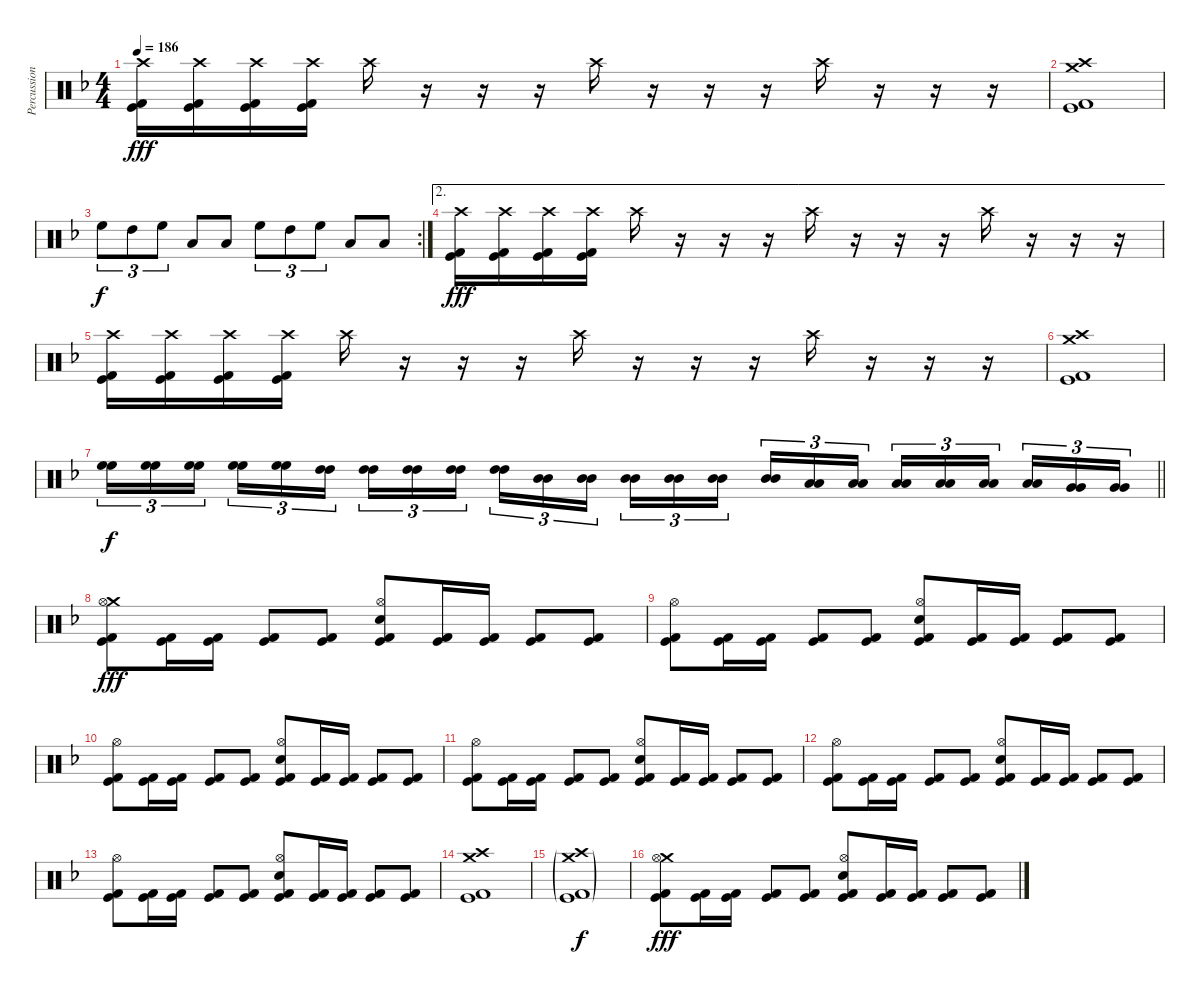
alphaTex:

\track ("Percussion" "Percussion") {instrument percussion}
\staff {score}
\articulation defaults
\ts (4 4)
\tempo 186
\clef neutral
\ks f
("Crash high (hit)" "Kick (hit)" "Kick (hit) 2").16{dy fff} ("Crash high (hit)" "Kick (hit)" "Kick (hit) 2").16 ("Crash high (hit)" "Kick (hit)" "Kick (hit) 2").16 ("Crash high (hit)" "Kick (hit)" "Kick (hit) 2").16 "Crash high (hit)".16 r.16 r.16 r.16 "Crash high (hit)".16 r.16 r.16 r.16 "Crash high (hit)".16 r.16 r.16 r.16 |
("Crash high (hit)" "Crash medium (hit)" "Kick (hit)" "Kick (hit) 2").1 |
\rc 2 "High Floor Tom (hit)".8{tu (3 2) dy f} "High Tom (hit)".8{tu (3 2)} "High Floor Tom (hit)".8{tu (3 2)} "Low Tom (hit)".8 "Low Tom (hit)".8 "High Floor Tom (hit)".8{tu (3 2)} "High Tom (hit)".8{tu (3 2)} "High Floor Tom (hit)".8{tu (3 2)} "Low Tom (hit)".8 "Low Tom (hit)".8
|
\ae 2
("Crash high (hit)" "Kick (hit)" "Kick (hit) 2").16{dy fff} ("Crash high (hit)" "Kick (hit)" "Kick (hit) 2").16 ("Crash high (hit)" "Kick (hit)" "Kick (hit) 2").16 ("Crash high (hit)" "Kick (hit)" "Kick (hit) 2").16 "Crash high (hit)".16 r.16 r.16 r.16 "Crash high (hit)".16 r.16 r.16 r.16 "Crash high (hit)".16 r.16 r.16 r.16 |
("Crash high (hit)" "Kick (hit)" "Kick (hit) 2").16 ("Crash high (hit)" "Kick (hit)" "Kick (hit) 2").16 ("Crash high (hit)" "Kick (hit)" "Kick (hit) 2").16 ("Crash high (hit)" "Kick (hit)" "Kick (hit) 2").16 "Crash high (hit)".16 r.16 r.16 r.16 "Crash high (hit)".16 r.16 r.16 r.16 "Crash high (hit)".16 r.16 r.16 r.16 |
("Crash high (hit)" "Crash medium (hit)" "Kick (hit)" "Kick (hit) 2").1 |
\barLineRight lightlight
("High Floor Tom (hit)" "High Floor Tom (hit)").16{tu (3 2) dy f} ("High Floor Tom (hit)" "High Floor Tom (hit)").16{tu (3 2)} ("High Floor Tom (hit)" "High Floor Tom (hit)").16{tu (3 2) beam splitsecondary} ("High Floor Tom (hit)" "High Floor Tom (hit)").16{tu (3 2)} ("High Floor Tom (hit)" "High Floor Tom (hit)").16{tu (3 2)} ("High Tom (hit)" "High Tom (hit)").16{tu (3 2)} ("High Tom (hit)" "High Tom (hit)").16{tu (3 2)} ("High Tom (hit)" "High Tom (hit)").16{tu (3 2)} ("High Tom (hit)" "High Tom (hit)").16{tu (3 2) beam splitsecondary} ("High Tom (hit)" "High Tom (hit)").16{tu (3 2)} ("Mid Tom (hit)" "Mid Tom (hit)").16{tu (3 2)} ("Mid Tom (hit)" "Mid Tom (hit)").16{tu (3 2)} ("Mid Tom (hit)" "Mid Tom (hit)").16{tu (3 2)} ("Mid Tom (hit)" "Mid Tom (hit)").16{tu (3 2)} ("Mid Tom (hit)" "Mid Tom (hit)").16{tu (3 2) beam splitsecondary} ("Mid Tom (hit)" "Mid Tom (hit)").16{tu (3 2)} ("Low Tom (hit)" "Low Tom (hit)").16{tu (3 2)} ("Low Tom (hit)" "Low Tom (hit)").16{tu (3 2)} ("Low Tom (hit)" "Low Tom (hit)").16{tu (3 2)} ("Low Tom (hit)" "Low Tom (hit)").16{tu (3 2)} ("Low Tom (hit)" "Low Tom (hit)").16{tu (3 2) beam splitsecondary} ("Low Tom (hit)" "Low Tom (hit)").16{tu (3 2)} ("Very Low Tom (hit)" "Very Low Tom (hit)").16{tu (3 2)} ("Very Low Tom (hit)" "Very Low Tom (hit)").16{tu (3 2)} |
("Crash medium (hit)" "Kick (hit)" "Kick (hit) 2" "Hi-Hat (open)").8{dy fff} ("Kick (hit)" "Kick (hit) 2").16 ("Kick (hit)" "Kick (hit) 2").16 ("Kick (hit)" "Kick (hit) 2").8 ("Kick (hit)" "Kick (hit) 2").8 ("Snare (hit) 2" "Kick (hit)" "Kick (hit) 2" "Hi-Hat (open)").8 ("Kick (hit)" "Kick (hit) 2").16 ("Kick (hit)" "Kick (hit) 2").16 ("Kick (hit)" "Kick (hit) 2").8 ("Kick (hit)" "Kick (hit) 2").8 |
("Kick (hit)" "Kick (hit) 2" "Hi-Hat (open)").8 ("Kick (hit)" "Kick (hit) 2").16 ("Kick (hit)" "Kick (hit) 2").16 ("Kick (hit)" "Kick (hit) 2").8 ("Kick (hit)" "Kick (hit) 2").8 ("Snare (hit) 2" "Kick (hit)" "Kick (hit) 2" "Hi-Hat (open)").8 ("Kick (hit)" "Kick (hit) 2").16 ("Kick (hit)" "Kick (hit) 2").16 ("Kick (hit)" "Kick (hit) 2").8 ("Kick (hit)" "Kick (hit) 2").8 |
("Kick (hit)" "Kick (hit) 2" "Hi-Hat (open)").8 ("Kick (hit)" "Kick (hit) 2").16 ("Kick (hit)" "Kick (hit) 2").16 ("Kick (hit)" "Kick (hit) 2").8 ("Kick (hit)" "Kick (hit) 2").8 ("Snare (hit) 2" "Kick (hit)" "Kick (hit) 2" "Hi-Hat (open)").8 ("Kick (hit)" "Kick (hit) 2").16 ("Kick (hit)" "Kick (hit) 2").16 ("Kick (hit)" "Kick (hit) 2").8 ("Kick (hit)" "Kick (hit) 2").8 |
("Kick (hit)" "Kick (hit) 2" "Hi-Hat (open)").8 ("Kick (hit)" "Kick (hit) 2").16 ("Kick (hit)" "Kick (hit) 2").16 ("Kick (hit)" "Kick (hit) 2").8 ("Kick (hit)" "Kick (hit) 2").8 ("Snare (hit) 2" "Kick (hit)" "Kick (hit) 2" "Hi-Hat (open)").8 ("Kick (hit)" "Kick (hit) 2").16 ("Kick (hit)" "Kick (hit) 2").16 ("Kick (hit)" "Kick (hit) 2").8 ("Kick (hit)" "Kick (hit) 2").8 |
("Kick (hit)" "Kick (hit) 2" "Hi-Hat (open)").8 ("Kick (hit)" "Kick (hit) 2").16 ("Kick (hit)" "Kick (hit) 2").16 ("Kick (hit)" "Kick (hit) 2").8 ("Kick (hit)" "Kick (hit) 2").8 ("Snare (hit) 2" "Kick (hit)" "Kick (hit) 2" "Hi-Hat (open)").8 ("Kick (hit)" "Kick (hit) 2").16 ("Kick (hit)" "Kick (hit) 2").16 ("Kick (hit)" "Kick (hit) 2").8 ("Kick (hit)" "Kick (hit) 2").8 |
("Kick (hit)" "Kick (hit) 2" "Hi-Hat (open)").8 ("Kick (hit)" "Kick (hit) 2").16 ("Kick (hit)" "Kick (hit) 2").16 ("Kick (hit)" "Kick (hit) 2").8 ("Kick (hit)" "Kick (hit) 2").8 ("Snare (hit) 2" "Kick (hit)" "Kick (hit) 2" "Hi-Hat (open)").8 ("Kick (hit)" "Kick (hit) 2").16 ("Kick (hit)" "Kick (hit) 2").16 ("Kick (hit)" "Kick (hit) 2").8 ("Kick (hit)" "Kick (hit) 2").8 |
("Crash high (hit)" "Crash medium (hit)" "Kick (hit)" "Kick (hit) 2").1 |
("Crash high (hit)"{g} "Crash medium (hit)"{g} "Kick (hit)"{g} "Kick (hit) 2"{g}).1{dy f} |
("Crash medium (hit)" "Kick (hit)" "Kick (hit) 2" "Hi-Hat (open)").8{dy fff} ("Kick (hit)" "Kick (hit) 2").16 ("Kick (hit)" "Kick (hit) 2").16 ("Kick (hit)" "Kick (hit) 2").8 ("Kick (hit)" "Kick (hit) 2").8 ("Snare (hit) 2" "Kick (hit)" "Kick (hit) 2" "Hi-Hat (open)").8 ("Kick (hit)" "Kick (hit) 2").16 ("Kick (hit)" "Kick (hit) 2").16 ("Kick (hit)" "Kick (hit) 2").8 ("Kick (hit)" "Kick (hit) 2").8
